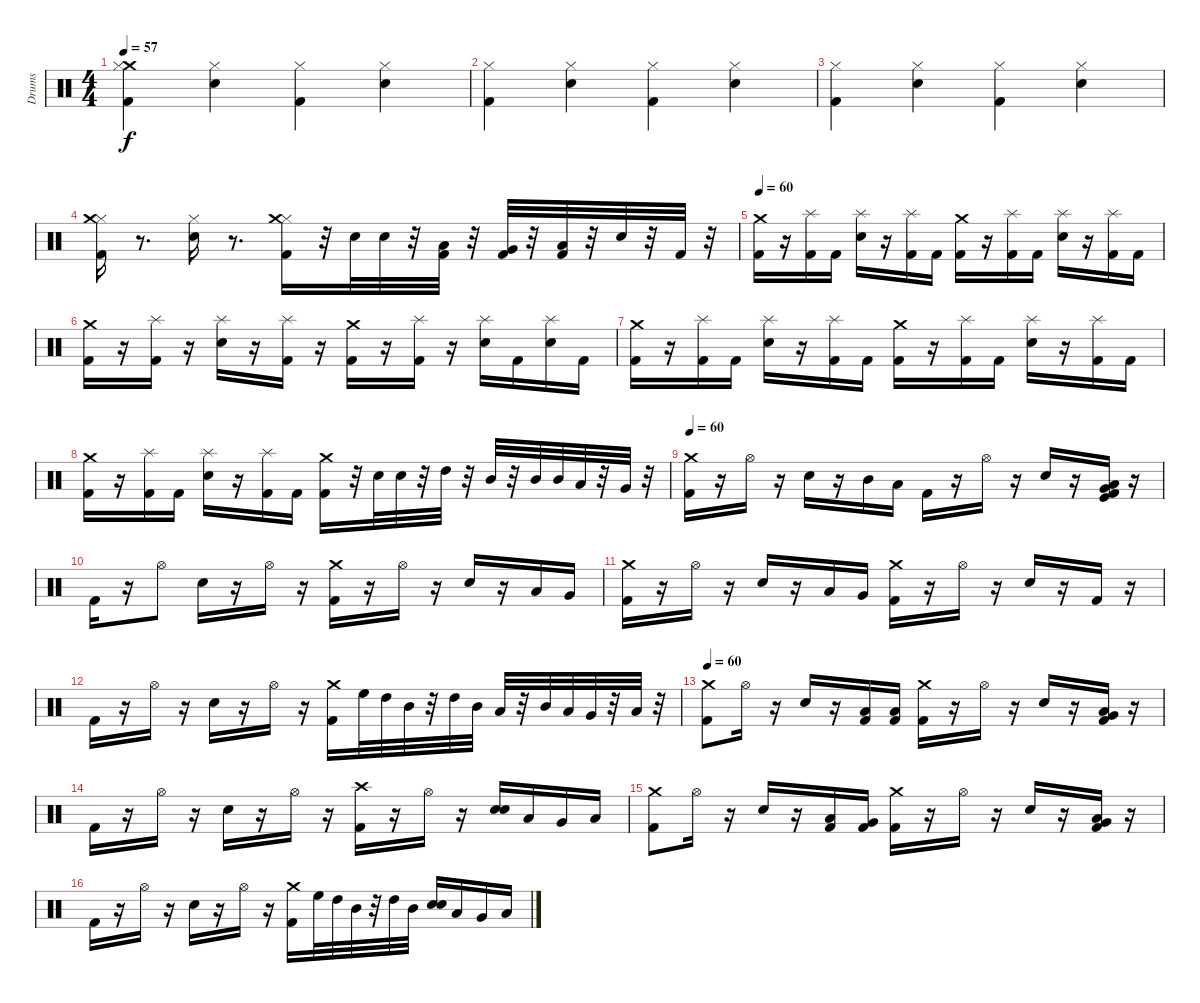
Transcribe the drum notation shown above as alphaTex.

\track ("Drums" "Drums") {instrument percussion}
\staff {score}
\articulation defaults
\ts (4 4)
\tempo 57
\clef neutral
\ks c
("Crash medium (hit)" "Hi-Hat (closed)" "Kick (hit) 2").4{dy f} ("Hi-Hat (closed)" "Snare (hit) 2").4 ("Hi-Hat (closed)" "Kick (hit) 2").4 ("Hi-Hat (closed)" "Snare (hit) 2").4 |
("Hi-Hat (closed)" "Kick (hit) 2").4 ("Hi-Hat (closed)" "Snare (hit) 2").4 ("Hi-Hat (closed)" "Kick (hit) 2").4 ("Hi-Hat (closed)" "Snare (hit) 2").4 |
("Hi-Hat (closed)" "Kick (hit) 2").4 ("Hi-Hat (closed)" "Snare (hit) 2").4 ("Hi-Hat (closed)" "Kick (hit) 2").4 ("Hi-Hat (closed)" "Snare (hit) 2").4 |
("Hi-Hat (closed)" "Kick (hit) 2" "Crash medium (hit)").16 r.8{d} ("Hi-Hat (closed)" "Snare (hit) 2").16 r.8{d} ("Hi-Hat (closed)" "Crash medium (hit)" "Kick (hit) 2").16 r.32 "Snare (hit) 2".32 "Snare (hit) 2".32 r.32 ("Kick (hit) 2" "Low Tom (hit)").32 r.32 ("Very Low Tom (hit)" "Kick (hit) 2").32 r.32 ("Low Floor Tom (hit)" "Kick (hit) 2").32 r.32 "Snare (hit) 2".32 r.32 "Kick (hit) 2".32 r.32 |
\tempo 60
("Kick (hit) 2" "Crash medium (hit)").16 r.16 ("Kick (hit) 2" "Splash (hit)").16 "Kick (hit) 2".16 ("Snare (hit) 2" "Splash (hit)").16 r.16 ("Kick (hit) 2" "Splash (hit)").16 "Kick (hit) 2".16 ("Kick (hit) 2" "Crash medium (hit)").16 r.16 ("Kick (hit) 2" "Splash (hit)").16 "Kick (hit) 2".16 ("Snare (hit) 2" "Splash (hit)").16 r.16 ("Kick (hit) 2" "Splash (hit)").16 "Kick (hit) 2".16 |
("Kick (hit) 2" "Crash medium (hit)").16 r.16 ("Kick (hit) 2" "Splash (hit)").16 r.16 ("Snare (hit) 2" "Splash (hit)").16 r.16 ("Kick (hit) 2" "Splash (hit)").16 r.16 ("Kick (hit) 2" "Crash medium (hit)").16 r.16 ("Kick (hit) 2" "Splash (hit)").16 r.16 ("Snare (hit) 2" "Splash (hit)").16 "Kick (hit) 2".16 ("Snare (hit) 2" "Splash (hit)").16 "Kick (hit) 2".16 |
("Kick (hit) 2" "Crash medium (hit)").16 r.16 ("Kick (hit) 2" "Splash (hit)").16 "Kick (hit) 2".16 ("Snare (hit) 2" "Splash (hit)").16 r.16 ("Kick (hit) 2" "Splash (hit)").16 "Kick (hit) 2".16 ("Kick (hit) 2" "Crash medium (hit)").16 r.16 ("Kick (hit) 2" "Splash (hit)").16 "Kick (hit) 2".16 ("Snare (hit) 2" "Splash (hit)").16 r.16 ("Kick (hit) 2" "Splash (hit)").16 "Kick (hit) 2".16 |
("Kick (hit) 2" "Crash medium (hit)").16 r.16 ("Kick (hit) 2" "Splash (hit)").16 "Kick (hit) 2".16 ("Snare (hit) 2" "Splash (hit)").16 r.16 ("Kick (hit) 2" "Splash (hit)").16 "Kick (hit) 2".16 ("Kick (hit) 2" "Crash medium (hit)").16 r.32 "Snare (hit) 2".32 "Snare (hit) 2".32 r.32 "High Tom (hit)".32 r.32 "Mid Tom (hit)".32 r.32 "Mid Tom (hit)".32 "Mid Tom (hit)".32 "Low Tom (hit)".32 r.32 "Very Low Tom (hit)".32 r.32 |
\tempo 60
("Kick (hit) 2" "Crash medium (hit)").16 r.16 "Hi-Hat (open)".16 r.16 "Snare (hit) 2".16 r.16 "Mid Tom (hit)".16 "Low Tom (hit)".16 "Kick (hit) 2".16 r.16 "Hi-Hat (open)".16 r.16 "Snare (hit) 2".16 r.16 ("Low Tom (hit)" "Kick (hit)" "Kick (hit) 2" "Very Low Tom (hit)").16 r.16 |
"Kick (hit) 2".16 r.16 "Hi-Hat (open)".8 "Snare (hit) 2".16 r.16 "Hi-Hat (open)".16 r.16 ("Crash medium (hit)" "Kick (hit) 2").16 r.16 "Hi-Hat (open)".16 r.16 "Snare (hit) 2".16 r.16 "Low Tom (hit)".16 "Very Low Tom (hit)".16 |
("Crash medium (hit)" "Kick (hit) 2").16 r.16 "Hi-Hat (open)".16 r.16 "Snare (hit) 2".16 r.16 "Low Tom (hit)".16 "Very Low Tom (hit)".16 ("Crash medium (hit)" "Kick (hit) 2").16 r.16 "Hi-Hat (open)".16 r.16 "Snare (hit) 2".16 r.16 "Kick (hit) 2".16 r.16 |
"Kick (hit) 2".16 r.16 "Hi-Hat (open)".16 r.16 "Snare (hit) 2".16 r.16 "Hi-Hat (open)".16 r.16 ("Kick (hit) 2" "Crash medium (hit)").16 "High Floor Tom (hit)".32 "High Tom (hit)".32 "Mid Tom (hit)".32 r.32 "High Tom (hit)".32 "Mid Tom (hit)".32 "Low Tom (hit)".32 r.32 "Mid Tom (hit)".32 "Low Tom (hit)".32 "Very Low Tom (hit)".32 r.32 "Low Floor Tom (hit)".32 r.32 |
\tempo 60
("Crash medium (hit)" "Kick (hit) 2").8 "Hi-Hat (open)".16 r.16 "Snare (hit) 2".16 r.16 ("Low Tom (hit)" "Kick (hit) 2").16 ("Low Tom (hit)" "Kick (hit) 2").16 ("Kick (hit) 2" "Crash medium (hit)").16 r.16 "Hi-Hat (open)".16 r.16 "Snare (hit) 2".16 r.16 ("Kick (hit) 2" "Very Low Tom (hit)" "Low Tom (hit)").16 r.16 |
"Kick (hit) 2".16 r.16 "Hi-Hat (open)".16 r.16 "Snare (hit) 2".16 r.16 "Hi-Hat (open)".16 r.16 ("Crash high (hit)" "Kick (hit) 2").16 r.16 "Hi-Hat (open)".16 r.16 ("Electric Snare (hit)" "Snare (hit) 2").16 "Low Tom (hit)".16 "Very Low Tom (hit)".16 "Low Floor Tom (hit)".16 |
("Crash medium (hit)" "Kick (hit) 2").8 "Hi-Hat (open)".16 r.16 "Snare (hit) 2".16 r.16 ("Low Tom (hit)" "Kick (hit) 2").16 ("Very Low Tom (hit)" "Kick (hit) 2").16 ("Kick (hit) 2" "Crash medium (hit)").16 r.16 "Hi-Hat (open)".16 r.16 "Snare (hit) 2".16 r.16 ("Kick (hit) 2" "Very Low Tom (hit)" "Low Tom (hit)").16 r.16 |
"Kick (hit) 2".16 r.16 "Hi-Hat (open)".16 r.16 "Snare (hit) 2".16 r.16 "Hi-Hat (open)".16 r.16 ("Crash medium (hit)" "Kick (hit) 2").16 "High Floor Tom (hit)".32 "High Tom (hit)".32 "Mid Tom (hit)".32 r.32 "High Tom (hit)".32 "Mid Tom (hit)".32 ("Electric Snare (hit)" "Snare (hit) 2").16 "Low Tom (hit)".16 "Very Low Tom (hit)".16 "Low Floor Tom (hit)".16
